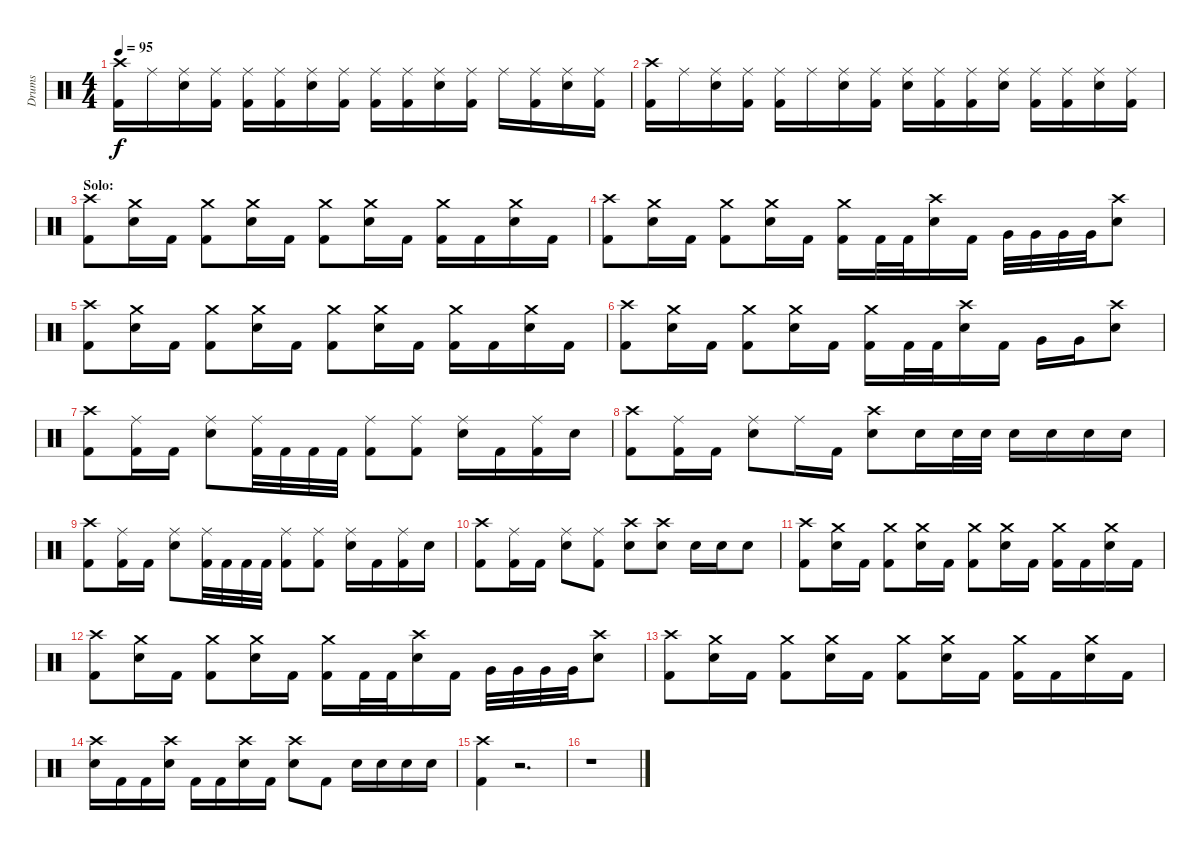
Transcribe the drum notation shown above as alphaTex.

\track ("Drums" "Drums") {instrument percussion}
\staff {score}
\articulation defaults
\ts (4 4)
\tempo 95
\clef neutral
\ks c
("Crash high (hit)" "Kick (hit) 2").16{dy f} "Ride (middle)".16 ("Ride (middle)" "Electric Snare (hit)").16 ("Ride (middle)" "Kick (hit) 2").16 ("Ride (middle)" "Kick (hit) 2").16 ("Ride (middle)" "Kick (hit) 2").16 ("Ride (middle)" "Electric Snare (hit)").16 ("Ride (middle)" "Kick (hit) 2").16 ("Ride (middle)" "Kick (hit) 2").16 ("Ride (middle)" "Kick (hit) 2").16 ("Ride (middle)" "Electric Snare (hit)").16 ("Ride (middle)" "Kick (hit) 2").16 "Ride (middle)".16 ("Ride (middle)" "Kick (hit) 2").16 ("Ride (middle)" "Electric Snare (hit)").16 ("Ride (middle)" "Kick (hit) 2").16 |
("Crash high (hit)" "Kick (hit) 2").16 "Ride (middle)".16 ("Ride (middle)" "Electric Snare (hit)").16 ("Ride (middle)" "Kick (hit) 2").16 ("Ride (middle)" "Kick (hit) 2").16 "Ride (middle)".16 ("Ride (middle)" "Electric Snare (hit)").16 ("Ride (middle)" "Kick (hit) 2").16 ("Ride (middle)" "Electric Snare (hit)").16 ("Ride (middle)" "Kick (hit) 2").16 ("Ride (middle)" "Kick (hit) 2").16 ("Ride (middle)" "Electric Snare (hit)").16 ("Ride (middle)" "Kick (hit) 2").16 ("Ride (middle)" "Kick (hit) 2").16 ("Ride (middle)" "Electric Snare (hit)").16 ("Ride (middle)" "Kick (hit) 2").16 |
\section ("" "Solo:")
("Crash high (hit)" "Kick (hit) 2").8 ("Crash medium (hit)" "Electric Snare (hit)").16 "Kick (hit) 2".16 ("Crash medium (hit)" "Kick (hit) 2").8 ("Crash medium (hit)" "Electric Snare (hit)").16 "Kick (hit) 2".16 ("Crash medium (hit)" "Kick (hit) 2").8 ("Crash medium (hit)" "Electric Snare (hit)").16 "Kick (hit) 2".16 ("Crash medium (hit)" "Kick (hit) 2").16 "Kick (hit) 2".16 ("Crash medium (hit)" "Electric Snare (hit)").16 "Kick (hit) 2".16 |
("Crash high (hit)" "Kick (hit) 2").8 ("Crash medium (hit)" "Electric Snare (hit)").16 "Kick (hit) 2".16 ("Crash medium (hit)" "Kick (hit) 2").8 ("Crash medium (hit)" "Electric Snare (hit)").16 "Kick (hit) 2".16 ("Crash medium (hit)" "Kick (hit) 2").16 "Kick (hit) 2".32 "Kick (hit) 2".32 ("Crash high (hit)" "Electric Snare (hit)").16 "Kick (hit) 2".16 "Very Low Tom (hit)".32 "Very Low Tom (hit)".32 "Very Low Tom (hit)".32 "Very Low Tom (hit)".32 ("Crash high (hit)" "Electric Snare (hit)").8 |
("Crash high (hit)" "Kick (hit) 2").8 ("Crash medium (hit)" "Electric Snare (hit)").16 "Kick (hit) 2".16 ("Crash medium (hit)" "Kick (hit) 2").8 ("Crash medium (hit)" "Electric Snare (hit)").16 "Kick (hit) 2".16 ("Crash medium (hit)" "Kick (hit) 2").8 ("Crash medium (hit)" "Electric Snare (hit)").16 "Kick (hit) 2".16 ("Crash medium (hit)" "Kick (hit) 2").16 "Kick (hit) 2".16 ("Crash medium (hit)" "Electric Snare (hit)").16 "Kick (hit) 2".16 |
("Crash high (hit)" "Kick (hit) 2").8 ("Crash medium (hit)" "Electric Snare (hit)").16 "Kick (hit) 2".16 ("Crash medium (hit)" "Kick (hit) 2").8 ("Crash medium (hit)" "Electric Snare (hit)").16 "Kick (hit) 2".16 ("Crash medium (hit)" "Kick (hit) 2").16 "Kick (hit) 2".32 "Kick (hit) 2".32 ("Crash high (hit)" "Electric Snare (hit)").16 "Kick (hit) 2".16 "Very Low Tom (hit)".16 "Very Low Tom (hit)".16 ("Crash high (hit)" "Electric Snare (hit)").8 |
("Crash high (hit)" "Kick (hit) 2").8 ("Ride (middle)" "Kick (hit) 2").16 "Kick (hit) 2".16 ("Ride (middle)" "Electric Snare (hit)").8 ("Ride (middle)" "Kick (hit) 2").32 "Kick (hit) 2".32 "Kick (hit) 2".32 "Kick (hit) 2".32 ("Ride (middle)" "Kick (hit) 2").8 ("Ride (middle)" "Kick (hit) 2").8 ("Ride (middle)" "Electric Snare (hit)").16 "Kick (hit) 2".16 ("Ride (middle)" "Kick (hit) 2").16 "Electric Snare (hit)".16 |
("Crash high (hit)" "Kick (hit) 2").8 ("Ride (middle)" "Kick (hit) 2").16 "Kick (hit) 2".16 ("Ride (middle)" "Electric Snare (hit)").8 "Ride (middle)".16 "Kick (hit) 2".16 ("Crash high (hit)" "Electric Snare (hit)").8 "Electric Snare (hit)".16 "Electric Snare (hit)".32 "Electric Snare (hit)".32 "Electric Snare (hit)".16 "Electric Snare (hit)".16 "Electric Snare (hit)".16 "Electric Snare (hit)".16 |
("Crash high (hit)" "Kick (hit) 2").8 ("Ride (middle)" "Kick (hit) 2").16 "Kick (hit) 2".16 ("Ride (middle)" "Electric Snare (hit)").8 ("Ride (middle)" "Kick (hit) 2").32 "Kick (hit) 2".32 "Kick (hit) 2".32 "Kick (hit) 2".32 ("Ride (middle)" "Kick (hit) 2").8 ("Ride (middle)" "Kick (hit) 2").8 ("Ride (middle)" "Electric Snare (hit)").16 "Kick (hit) 2".16 ("Ride (middle)" "Kick (hit) 2").16 "Electric Snare (hit)".16 |
("Crash high (hit)" "Kick (hit) 2").8 ("Ride (middle)" "Kick (hit) 2").16 "Kick (hit) 2".16 ("Ride (middle)" "Electric Snare (hit)").8 ("Ride (middle)" "Kick (hit) 2").8 ("Crash high (hit)" "Electric Snare (hit)").8 ("Crash high (hit)" "Electric Snare (hit)").8 "Electric Snare (hit)".16 "Electric Snare (hit)".16 "Electric Snare (hit)".8 |
("Crash high (hit)" "Kick (hit) 2").8 ("Crash medium (hit)" "Electric Snare (hit)").16 "Kick (hit) 2".16 ("Crash medium (hit)" "Kick (hit) 2").8 ("Crash medium (hit)" "Electric Snare (hit)").16 "Kick (hit) 2".16 ("Crash medium (hit)" "Kick (hit) 2").8 ("Crash medium (hit)" "Electric Snare (hit)").16 "Kick (hit) 2".16 ("Crash medium (hit)" "Kick (hit) 2").16 "Kick (hit) 2".16 ("Crash medium (hit)" "Electric Snare (hit)").16 "Kick (hit) 2".16 |
("Crash high (hit)" "Kick (hit) 2").8 ("Crash medium (hit)" "Electric Snare (hit)").16 "Kick (hit) 2".16 ("Crash medium (hit)" "Kick (hit) 2").8 ("Crash medium (hit)" "Electric Snare (hit)").16 "Kick (hit) 2".16 ("Crash medium (hit)" "Kick (hit) 2").16 "Kick (hit) 2".32 "Kick (hit) 2".32 ("Crash high (hit)" "Electric Snare (hit)").16 "Kick (hit) 2".16 "Very Low Tom (hit)".32 "Very Low Tom (hit)".32 "Very Low Tom (hit)".32 "Very Low Tom (hit)".32 ("Crash high (hit)" "Electric Snare (hit)").8 |
("Crash high (hit)" "Kick (hit) 2").8 ("Crash medium (hit)" "Electric Snare (hit)").16 "Kick (hit) 2".16 ("Crash medium (hit)" "Kick (hit) 2").8 ("Crash medium (hit)" "Electric Snare (hit)").16 "Kick (hit) 2".16 ("Crash medium (hit)" "Kick (hit) 2").8 ("Crash medium (hit)" "Electric Snare (hit)").16 "Kick (hit) 2".16 ("Crash medium (hit)" "Kick (hit) 2").16 "Kick (hit) 2".16 ("Crash medium (hit)" "Electric Snare (hit)").16 "Kick (hit) 2".16 |
("Crash high (hit)" "Electric Snare (hit)").16 "Kick (hit) 2".16 "Kick (hit) 2".16 ("Crash high (hit)" "Electric Snare (hit)").16 "Kick (hit) 2".16 "Kick (hit) 2".16 ("Crash high (hit)" "Electric Snare (hit)").16 "Kick (hit) 2".16 ("Crash high (hit)" "Electric Snare (hit)").8 "Kick (hit) 2".8 "Electric Snare (hit)".16 "Electric Snare (hit)".16 "Electric Snare (hit)".16 "Electric Snare (hit)".16 |
("Crash high (hit)" "Kick (hit) 2").4 r.2{d} |
r.1
